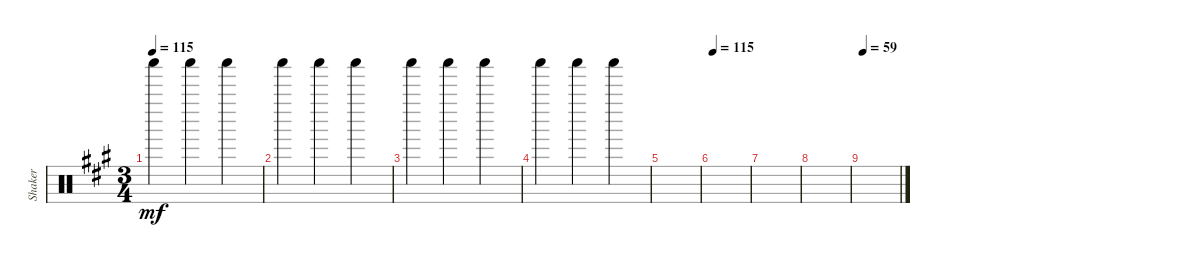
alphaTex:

\track ("Shaker" "Shaker") {instrument percussion}
\staff {score}
\articulation defaults
\ts (3 4)
\tempo 115
\clef neutral
\ks a "Shaker (hit)".4{dy mf} "Shaker (hit)".4 "Shaker (hit)".4
|
"Shaker (hit)".4 "Shaker (hit)".4 "Shaker (hit)".4 |
"Shaker (hit)".4 "Shaker (hit)".4 "Shaker (hit)".4 |
"Shaker (hit)".4 "Shaker (hit)".4 "Shaker (hit)".4 |
|
\tempo 115
|
|
|
\tempo 59
